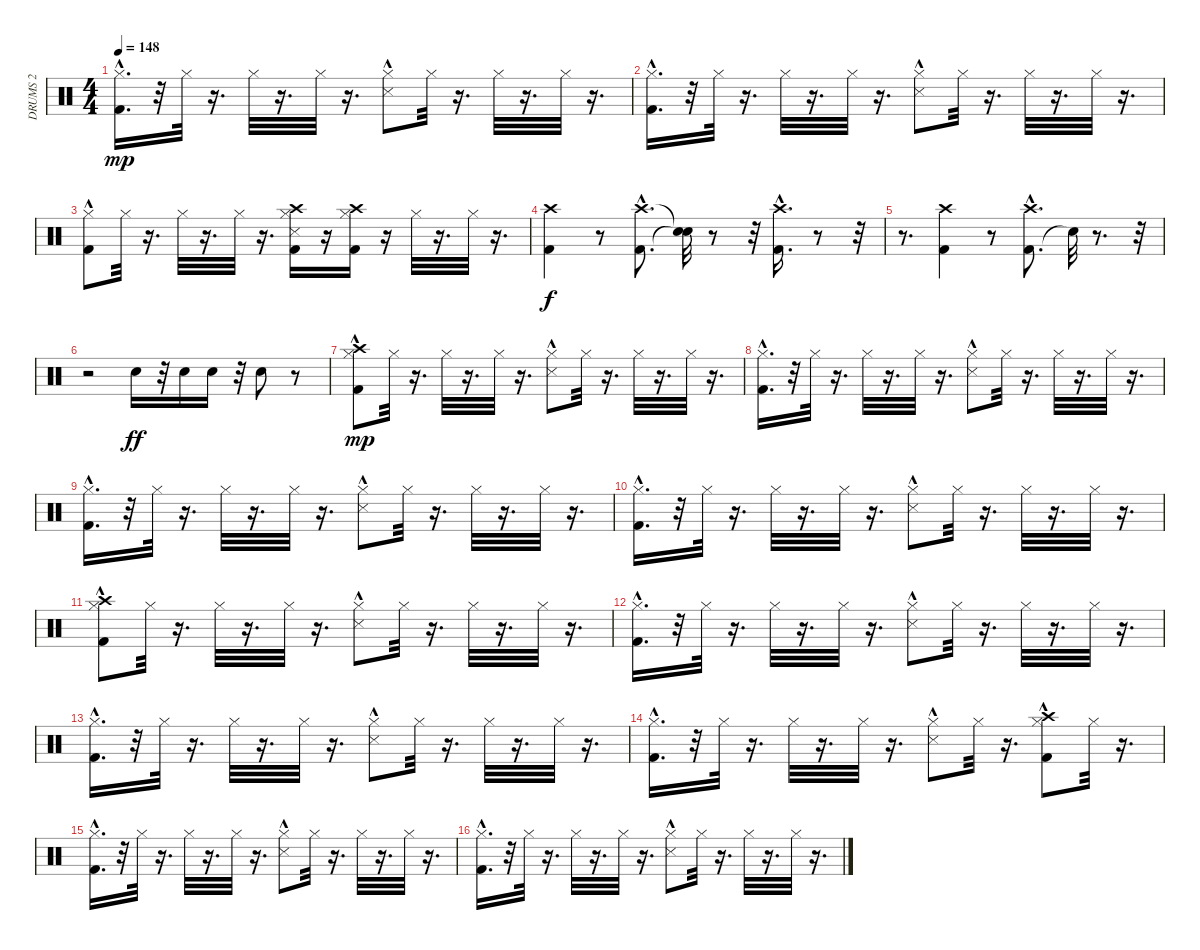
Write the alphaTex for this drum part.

\track ("DRUMS 2" "DRUMS 2") {instrument percussion}
\staff {score}
\articulation defaults
\ts (4 4)
\tempo 148
\clef neutral
\ks c
("Kick (hit) 2"{hac} "Hi-Hat (closed)").16{d dy mp} r.32 "Hi-Hat (closed)".32 r.16{d} "Hi-Hat (closed)".32 r.16{d} "Hi-Hat (closed)".32 r.16{d} ("Snare (side stick) 3"{hac} "Hi-Hat (closed)").8 "Hi-Hat (closed)".32 r.16{d} "Hi-Hat (closed)".32 r.16{d} "Hi-Hat (closed)".32 r.16{d} |
("Kick (hit) 2"{hac} "Hi-Hat (closed)").16{d} r.32 "Hi-Hat (closed)".32 r.16{d} "Hi-Hat (closed)".32 r.16{d} "Hi-Hat (closed)".32 r.16{d} ("Snare (side stick) 3"{hac} "Hi-Hat (closed)").8 "Hi-Hat (closed)".32 r.16{d} "Hi-Hat (closed)".32 r.16{d} "Hi-Hat (closed)".32 r.16{d} |
("Kick (hit) 2"{hac} "Hi-Hat (closed)").8 "Hi-Hat (closed)".32 r.16{d} "Hi-Hat (closed)".32 r.16{d} "Hi-Hat (closed)".32 r.16{d} ("Snare (side stick) 3" "Kick (hit) 2" "Hi-Hat (closed)" "Crash high (hit)").16 r.16 ("Kick (hit) 2" "Hi-Hat (closed)" "Crash high (hit)").16 r.16 "Hi-Hat (closed)".32 r.16{d} "Hi-Hat (closed)".32 r.16{d} |
("Kick (hit) 2" "Crash high (hit)").4{dy f} r.8 ("Kick (hit) 2"{hac} "Crash high (hit)"{hac}).8{d} ("Snare (hit)"{t} "Snare (hit)"{t}).32 r.8 r.32 ("Kick (hit) 2"{hac} "Crash high (hit)"{hac}).16{d} r.8 r.32 |
r.8{d} ("Kick (hit) 2" "Crash high (hit)").4 r.8 ("Kick (hit) 2"{hac} "Crash high (hit)").8{d} "Snare (hit)"{t}.32 r.8{d} r.32 |
r.2 "Snare (hit) 2".16{dy ff} r.32 "Snare (hit) 2".16 "Snare (hit) 2".16 r.32 "Snare (hit) 2".8 r.8 |
("Kick (hit) 2"{hac} "Hi-Hat (closed)" "Crash high (hit)"{hac}).8{dy mp} "Hi-Hat (closed)".32 r.16{d} "Hi-Hat (closed)".32 r.16{d} "Hi-Hat (closed)".32 r.16{d} ("Snare (side stick) 3"{hac} "Hi-Hat (closed)").8 "Hi-Hat (closed)".32 r.16{d} "Hi-Hat (closed)".32 r.16{d} "Hi-Hat (closed)".32 r.16{d} |
("Kick (hit) 2"{hac} "Hi-Hat (closed)").16{d} r.32 "Hi-Hat (closed)".32 r.16{d} "Hi-Hat (closed)".32 r.16{d} "Hi-Hat (closed)".32 r.16{d} ("Snare (side stick) 3"{hac} "Hi-Hat (closed)").8 "Hi-Hat (closed)".32 r.16{d} "Hi-Hat (closed)".32 r.16{d} "Hi-Hat (closed)".32 r.16{d} |
("Kick (hit) 2"{hac} "Hi-Hat (closed)").16{d} r.32 "Hi-Hat (closed)".32 r.16{d} "Hi-Hat (closed)".32 r.16{d} "Hi-Hat (closed)".32 r.16{d} ("Snare (side stick) 3"{hac} "Hi-Hat (closed)").8 "Hi-Hat (closed)".32 r.16{d} "Hi-Hat (closed)".32 r.16{d} "Hi-Hat (closed)".32 r.16{d} |
("Kick (hit) 2"{hac} "Hi-Hat (closed)").16{d} r.32 "Hi-Hat (closed)".32 r.16{d} "Hi-Hat (closed)".32 r.16{d} "Hi-Hat (closed)".32 r.16{d} ("Snare (side stick) 3"{hac} "Hi-Hat (closed)").8 "Hi-Hat (closed)".32 r.16{d} "Hi-Hat (closed)".32 r.16{d} "Hi-Hat (closed)".32 r.16{d} |
("Kick (hit) 2"{hac} "Hi-Hat (closed)" "Crash high (hit)"{hac}).8 "Hi-Hat (closed)".32 r.16{d} "Hi-Hat (closed)".32 r.16{d} "Hi-Hat (closed)".32 r.16{d} ("Snare (side stick) 3"{hac} "Hi-Hat (closed)").8 "Hi-Hat (closed)".32 r.16{d} "Hi-Hat (closed)".32 r.16{d} "Hi-Hat (closed)".32 r.16{d} |
("Kick (hit) 2"{hac} "Hi-Hat (closed)").16{d} r.32 "Hi-Hat (closed)".32 r.16{d} "Hi-Hat (closed)".32 r.16{d} "Hi-Hat (closed)".32 r.16{d} ("Snare (side stick) 3"{hac} "Hi-Hat (closed)").8 "Hi-Hat (closed)".32 r.16{d} "Hi-Hat (closed)".32 r.16{d} "Hi-Hat (closed)".32 r.16{d} |
("Kick (hit) 2"{hac} "Hi-Hat (closed)").16{d} r.32 "Hi-Hat (closed)".32 r.16{d} "Hi-Hat (closed)".32 r.16{d} "Hi-Hat (closed)".32 r.16{d} ("Snare (side stick) 3"{hac} "Hi-Hat (closed)").8 "Hi-Hat (closed)".32 r.16{d} "Hi-Hat (closed)".32 r.16{d} "Hi-Hat (closed)".32 r.16{d} |
("Kick (hit) 2"{hac} "Hi-Hat (closed)").16{d} r.32 "Hi-Hat (closed)".32 r.16{d} "Hi-Hat (closed)".32 r.16{d} "Hi-Hat (closed)".32 r.16{d} ("Snare (side stick) 3"{hac} "Hi-Hat (closed)").8 "Hi-Hat (closed)".32 r.16{d} ("Kick (hit) 2"{hac} "Hi-Hat (closed)" "Crash high (hit)").8 "Hi-Hat (closed)".32 r.16{d} |
("Kick (hit) 2"{hac} "Hi-Hat (closed)").16{d} r.32 "Hi-Hat (closed)".32 r.16{d} "Hi-Hat (closed)".32 r.16{d} "Hi-Hat (closed)".32 r.16{d} ("Snare (side stick) 3"{hac} "Hi-Hat (closed)").8 "Hi-Hat (closed)".32 r.16{d} "Hi-Hat (closed)".32 r.16{d} "Hi-Hat (closed)".32 r.16{d} |
("Kick (hit) 2"{hac} "Hi-Hat (closed)").16{d} r.32 "Hi-Hat (closed)".32 r.16{d} "Hi-Hat (closed)".32 r.16{d} "Hi-Hat (closed)".32 r.16{d} ("Snare (side stick) 3"{hac} "Hi-Hat (closed)").8 "Hi-Hat (closed)".32 r.16{d} "Hi-Hat (closed)".32 r.16{d} "Hi-Hat (closed)".32 r.16{d}
